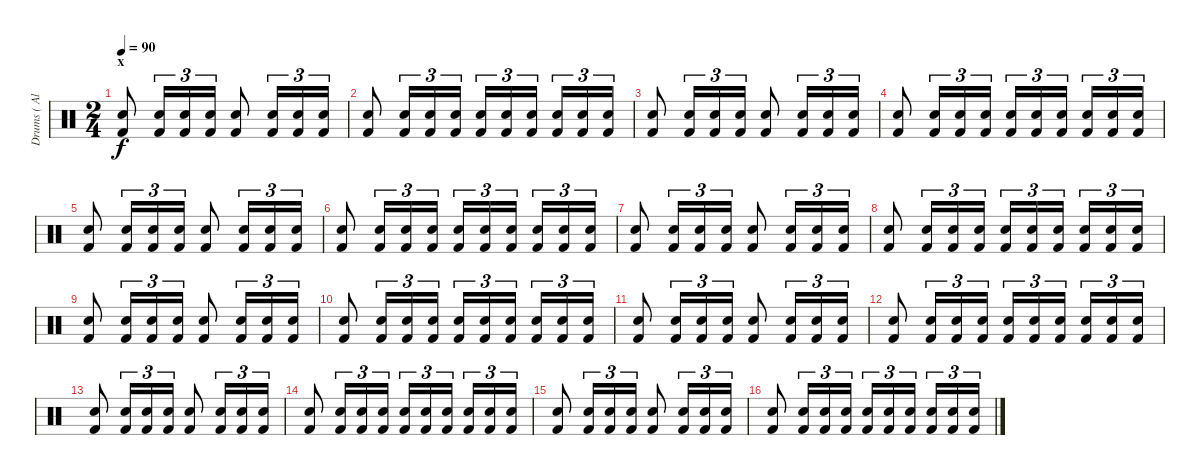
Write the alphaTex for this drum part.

\track ("Drums ( Alex Holzwarth)" "Drums ( Al") {instrument percussion}
\staff {score}
\articulation defaults
\ts (2 4)
\section ("" "x")
\tempo 90
\clef neutral
\ks c
("Snare (hit) 2" "Kick (hit) 2").8{dy f} ("Snare (hit) 2" "Kick (hit) 2").16{tu (3 2)} ("Snare (hit) 2" "Kick (hit) 2").16{tu (3 2)} ("Snare (hit) 2" "Kick (hit) 2").16{tu (3 2)} ("Snare (hit) 2" "Kick (hit) 2").8 ("Snare (hit) 2" "Kick (hit) 2").16{tu (3 2)} ("Snare (hit) 2" "Kick (hit) 2").16{tu (3 2)} ("Snare (hit) 2" "Kick (hit) 2").16{tu (3 2)} |
("Snare (hit) 2" "Kick (hit) 2").8 ("Snare (hit) 2" "Kick (hit) 2").16{tu (3 2)} ("Snare (hit) 2" "Kick (hit) 2").16{tu (3 2)} ("Snare (hit) 2" "Kick (hit) 2").16{tu (3 2)} ("Snare (hit) 2" "Kick (hit) 2").16{tu (3 2)} ("Snare (hit) 2" "Kick (hit) 2").16{tu (3 2)} ("Snare (hit) 2" "Kick (hit) 2").16{tu (3 2) beam splitsecondary} ("Snare (hit) 2" "Kick (hit) 2").16{tu (3 2)} ("Snare (hit) 2" "Kick (hit) 2").16{tu (3 2)} ("Snare (hit) 2" "Kick (hit) 2").16{tu (3 2)} |
("Snare (hit) 2" "Kick (hit) 2").8 ("Snare (hit) 2" "Kick (hit) 2").16{tu (3 2)} ("Snare (hit) 2" "Kick (hit) 2").16{tu (3 2)} ("Snare (hit) 2" "Kick (hit) 2").16{tu (3 2)} ("Snare (hit) 2" "Kick (hit) 2").8 ("Snare (hit) 2" "Kick (hit) 2").16{tu (3 2)} ("Snare (hit) 2" "Kick (hit) 2").16{tu (3 2)} ("Snare (hit) 2" "Kick (hit) 2").16{tu (3 2)} |
("Snare (hit) 2" "Kick (hit) 2").8 ("Snare (hit) 2" "Kick (hit) 2").16{tu (3 2)} ("Snare (hit) 2" "Kick (hit) 2").16{tu (3 2)} ("Snare (hit) 2" "Kick (hit) 2").16{tu (3 2)} ("Snare (hit) 2" "Kick (hit) 2").16{tu (3 2)} ("Snare (hit) 2" "Kick (hit) 2").16{tu (3 2)} ("Snare (hit) 2" "Kick (hit) 2").16{tu (3 2) beam splitsecondary} ("Snare (hit) 2" "Kick (hit) 2").16{tu (3 2)} ("Snare (hit) 2" "Kick (hit) 2").16{tu (3 2)} ("Snare (hit) 2" "Kick (hit) 2").16{tu (3 2)} |
("Snare (hit) 2" "Kick (hit) 2").8 ("Snare (hit) 2" "Kick (hit) 2").16{tu (3 2)} ("Snare (hit) 2" "Kick (hit) 2").16{tu (3 2)} ("Snare (hit) 2" "Kick (hit) 2").16{tu (3 2)} ("Snare (hit) 2" "Kick (hit) 2").8 ("Snare (hit) 2" "Kick (hit) 2").16{tu (3 2)} ("Snare (hit) 2" "Kick (hit) 2").16{tu (3 2)} ("Snare (hit) 2" "Kick (hit) 2").16{tu (3 2)} |
("Snare (hit) 2" "Kick (hit) 2").8 ("Snare (hit) 2" "Kick (hit) 2").16{tu (3 2)} ("Snare (hit) 2" "Kick (hit) 2").16{tu (3 2)} ("Snare (hit) 2" "Kick (hit) 2").16{tu (3 2)} ("Snare (hit) 2" "Kick (hit) 2").16{tu (3 2)} ("Snare (hit) 2" "Kick (hit) 2").16{tu (3 2)} ("Snare (hit) 2" "Kick (hit) 2").16{tu (3 2) beam splitsecondary} ("Snare (hit) 2" "Kick (hit) 2").16{tu (3 2)} ("Snare (hit) 2" "Kick (hit) 2").16{tu (3 2)} ("Snare (hit) 2" "Kick (hit) 2").16{tu (3 2)} |
("Snare (hit) 2" "Kick (hit) 2").8 ("Snare (hit) 2" "Kick (hit) 2").16{tu (3 2)} ("Snare (hit) 2" "Kick (hit) 2").16{tu (3 2)} ("Snare (hit) 2" "Kick (hit) 2").16{tu (3 2)} ("Snare (hit) 2" "Kick (hit) 2").8 ("Snare (hit) 2" "Kick (hit) 2").16{tu (3 2)} ("Snare (hit) 2" "Kick (hit) 2").16{tu (3 2)} ("Snare (hit) 2" "Kick (hit) 2").16{tu (3 2)} |
("Snare (hit) 2" "Kick (hit) 2").8 ("Snare (hit) 2" "Kick (hit) 2").16{tu (3 2)} ("Snare (hit) 2" "Kick (hit) 2").16{tu (3 2)} ("Snare (hit) 2" "Kick (hit) 2").16{tu (3 2)} ("Snare (hit) 2" "Kick (hit) 2").16{tu (3 2)} ("Snare (hit) 2" "Kick (hit) 2").16{tu (3 2)} ("Snare (hit) 2" "Kick (hit) 2").16{tu (3 2) beam splitsecondary} ("Snare (hit) 2" "Kick (hit) 2").16{tu (3 2)} ("Snare (hit) 2" "Kick (hit) 2").16{tu (3 2)} ("Snare (hit) 2" "Kick (hit) 2").16{tu (3 2)} |
("Snare (hit) 2" "Kick (hit) 2").8 ("Snare (hit) 2" "Kick (hit) 2").16{tu (3 2)} ("Snare (hit) 2" "Kick (hit) 2").16{tu (3 2)} ("Snare (hit) 2" "Kick (hit) 2").16{tu (3 2)} ("Snare (hit) 2" "Kick (hit) 2").8 ("Snare (hit) 2" "Kick (hit) 2").16{tu (3 2)} ("Snare (hit) 2" "Kick (hit) 2").16{tu (3 2)} ("Snare (hit) 2" "Kick (hit) 2").16{tu (3 2)} |
("Snare (hit) 2" "Kick (hit) 2").8 ("Snare (hit) 2" "Kick (hit) 2").16{tu (3 2)} ("Snare (hit) 2" "Kick (hit) 2").16{tu (3 2)} ("Snare (hit) 2" "Kick (hit) 2").16{tu (3 2)} ("Snare (hit) 2" "Kick (hit) 2").16{tu (3 2)} ("Snare (hit) 2" "Kick (hit) 2").16{tu (3 2)} ("Snare (hit) 2" "Kick (hit) 2").16{tu (3 2) beam splitsecondary} ("Snare (hit) 2" "Kick (hit) 2").16{tu (3 2)} ("Snare (hit) 2" "Kick (hit) 2").16{tu (3 2)} ("Snare (hit) 2" "Kick (hit) 2").16{tu (3 2)} |
("Snare (hit) 2" "Kick (hit) 2").8 ("Snare (hit) 2" "Kick (hit) 2").16{tu (3 2)} ("Snare (hit) 2" "Kick (hit) 2").16{tu (3 2)} ("Snare (hit) 2" "Kick (hit) 2").16{tu (3 2)} ("Snare (hit) 2" "Kick (hit) 2").8 ("Snare (hit) 2" "Kick (hit) 2").16{tu (3 2)} ("Snare (hit) 2" "Kick (hit) 2").16{tu (3 2)} ("Snare (hit) 2" "Kick (hit) 2").16{tu (3 2)} |
("Snare (hit) 2" "Kick (hit) 2").8 ("Snare (hit) 2" "Kick (hit) 2").16{tu (3 2)} ("Snare (hit) 2" "Kick (hit) 2").16{tu (3 2)} ("Snare (hit) 2" "Kick (hit) 2").16{tu (3 2)} ("Snare (hit) 2" "Kick (hit) 2").16{tu (3 2)} ("Snare (hit) 2" "Kick (hit) 2").16{tu (3 2)} ("Snare (hit) 2" "Kick (hit) 2").16{tu (3 2) beam splitsecondary} ("Snare (hit) 2" "Kick (hit) 2").16{tu (3 2)} ("Snare (hit) 2" "Kick (hit) 2").16{tu (3 2)} ("Snare (hit) 2" "Kick (hit) 2").16{tu (3 2)} |
("Snare (hit) 2" "Kick (hit) 2").8 ("Snare (hit) 2" "Kick (hit) 2").16{tu (3 2)} ("Snare (hit) 2" "Kick (hit) 2").16{tu (3 2)} ("Snare (hit) 2" "Kick (hit) 2").16{tu (3 2)} ("Snare (hit) 2" "Kick (hit) 2").8 ("Snare (hit) 2" "Kick (hit) 2").16{tu (3 2)} ("Snare (hit) 2" "Kick (hit) 2").16{tu (3 2)} ("Snare (hit) 2" "Kick (hit) 2").16{tu (3 2)} |
("Snare (hit) 2" "Kick (hit) 2").8 ("Snare (hit) 2" "Kick (hit) 2").16{tu (3 2)} ("Snare (hit) 2" "Kick (hit) 2").16{tu (3 2)} ("Snare (hit) 2" "Kick (hit) 2").16{tu (3 2)} ("Snare (hit) 2" "Kick (hit) 2").16{tu (3 2)} ("Snare (hit) 2" "Kick (hit) 2").16{tu (3 2)} ("Snare (hit) 2" "Kick (hit) 2").16{tu (3 2) beam splitsecondary} ("Snare (hit) 2" "Kick (hit) 2").16{tu (3 2)} ("Snare (hit) 2" "Kick (hit) 2").16{tu (3 2)} ("Snare (hit) 2" "Kick (hit) 2").16{tu (3 2)} |
("Snare (hit) 2" "Kick (hit) 2").8 ("Snare (hit) 2" "Kick (hit) 2").16{tu (3 2)} ("Snare (hit) 2" "Kick (hit) 2").16{tu (3 2)} ("Snare (hit) 2" "Kick (hit) 2").16{tu (3 2)} ("Snare (hit) 2" "Kick (hit) 2").8 ("Snare (hit) 2" "Kick (hit) 2").16{tu (3 2)} ("Snare (hit) 2" "Kick (hit) 2").16{tu (3 2)} ("Snare (hit) 2" "Kick (hit) 2").16{tu (3 2)} |
("Snare (hit) 2" "Kick (hit) 2").8 ("Snare (hit) 2" "Kick (hit) 2").16{tu (3 2)} ("Snare (hit) 2" "Kick (hit) 2").16{tu (3 2)} ("Snare (hit) 2" "Kick (hit) 2").16{tu (3 2)} ("Snare (hit) 2" "Kick (hit) 2").16{tu (3 2)} ("Snare (hit) 2" "Kick (hit) 2").16{tu (3 2)} ("Snare (hit) 2" "Kick (hit) 2").16{tu (3 2) beam splitsecondary} ("Snare (hit) 2" "Kick (hit) 2").16{tu (3 2)} ("Snare (hit) 2" "Kick (hit) 2").16{tu (3 2)} ("Snare (hit) 2" "Kick (hit) 2").16{tu (3 2)}
